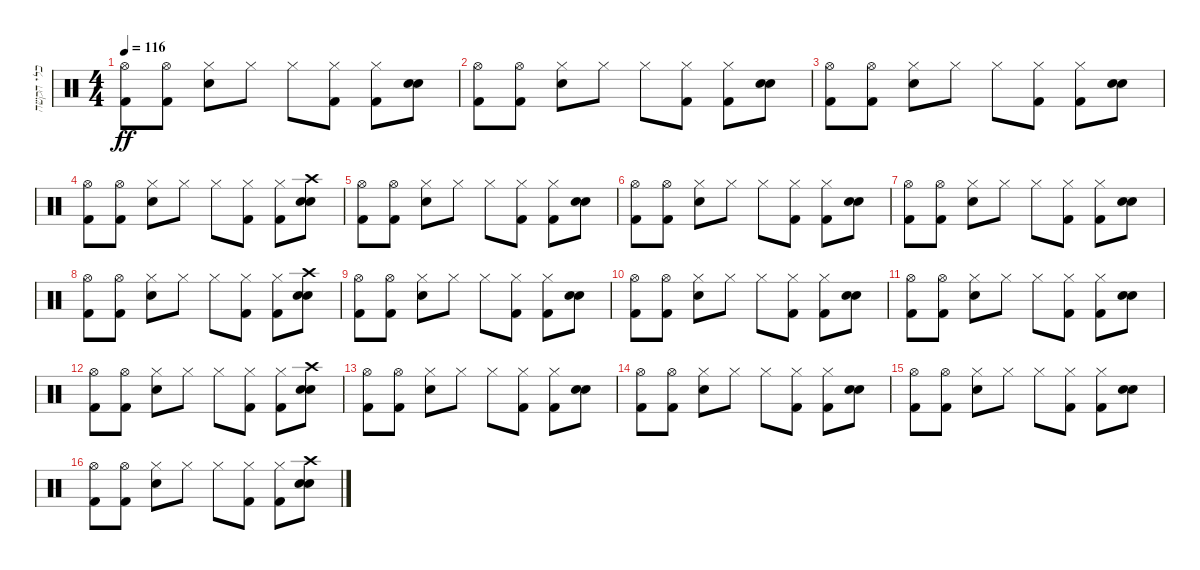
\track ("כלי הקשה" "כלי הקשה") {instrument percussion}
\staff {score}
\articulation defaults
\ts (4 4)
\tempo 116
\clef neutral
\ks c
("Hi-Hat (open)" "Kick (hit) 2").8{dy ff} ("Hi-Hat (open)" "Kick (hit) 2").8 ("Hi-Hat (closed)" "Snare (hit) 2").8 "Hi-Hat (closed)".8 "Hi-Hat (closed)".8 ("Hi-Hat (closed)" "Kick (hit) 2").8 ("Hi-Hat (closed)" "Kick (hit) 2").8 ("Electric Snare (hit)" "Snare (hit) 2").8 |
("Hi-Hat (open)" "Kick (hit) 2").8 ("Hi-Hat (open)" "Kick (hit) 2").8 ("Hi-Hat (closed)" "Snare (hit) 2").8 "Hi-Hat (closed)".8 "Hi-Hat (closed)".8 ("Hi-Hat (closed)" "Kick (hit) 2").8 ("Hi-Hat (closed)" "Kick (hit) 2").8 ("Electric Snare (hit)" "Snare (hit) 2").8 |
("Hi-Hat (open)" "Kick (hit) 2").8 ("Hi-Hat (open)" "Kick (hit) 2").8 ("Hi-Hat (closed)" "Snare (hit) 2").8 "Hi-Hat (closed)".8 "Hi-Hat (closed)".8 ("Hi-Hat (closed)" "Kick (hit) 2").8 ("Hi-Hat (closed)" "Kick (hit) 2").8 ("Electric Snare (hit)" "Snare (hit) 2").8 |
("Hi-Hat (open)" "Kick (hit) 2").8 ("Hi-Hat (open)" "Kick (hit) 2").8 ("Hi-Hat (closed)" "Snare (hit) 2").8 "Hi-Hat (closed)".8 "Hi-Hat (closed)".8 ("Hi-Hat (closed)" "Kick (hit) 2").8 ("Hi-Hat (closed)" "Kick (hit) 2").8 ("Crash high (hit)" "Electric Snare (hit)" "Snare (hit) 2").8 |
("Hi-Hat (open)" "Kick (hit) 2").8 ("Hi-Hat (open)" "Kick (hit) 2").8 ("Hi-Hat (closed)" "Snare (hit) 2").8 "Hi-Hat (closed)".8 "Hi-Hat (closed)".8 ("Hi-Hat (closed)" "Kick (hit) 2").8 ("Hi-Hat (closed)" "Kick (hit) 2").8 ("Electric Snare (hit)" "Snare (hit) 2").8 |
("Hi-Hat (open)" "Kick (hit) 2").8 ("Hi-Hat (open)" "Kick (hit) 2").8 ("Hi-Hat (closed)" "Snare (hit) 2").8 "Hi-Hat (closed)".8 "Hi-Hat (closed)".8 ("Hi-Hat (closed)" "Kick (hit) 2").8 ("Hi-Hat (closed)" "Kick (hit) 2").8 ("Electric Snare (hit)" "Snare (hit) 2").8 |
("Hi-Hat (open)" "Kick (hit) 2").8 ("Hi-Hat (open)" "Kick (hit) 2").8 ("Hi-Hat (closed)" "Snare (hit) 2").8 "Hi-Hat (closed)".8 "Hi-Hat (closed)".8 ("Hi-Hat (closed)" "Kick (hit) 2").8 ("Hi-Hat (closed)" "Kick (hit) 2").8 ("Electric Snare (hit)" "Snare (hit) 2").8 |
("Hi-Hat (open)" "Kick (hit) 2").8 ("Hi-Hat (open)" "Kick (hit) 2").8 ("Hi-Hat (closed)" "Snare (hit) 2").8 "Hi-Hat (closed)".8 "Hi-Hat (closed)".8 ("Hi-Hat (closed)" "Kick (hit) 2").8 ("Hi-Hat (closed)" "Kick (hit) 2").8 ("Crash high (hit)" "Electric Snare (hit)" "Snare (hit) 2").8 |
("Hi-Hat (open)" "Kick (hit) 2").8 ("Hi-Hat (open)" "Kick (hit) 2").8 ("Hi-Hat (closed)" "Snare (hit) 2").8 "Hi-Hat (closed)".8 "Hi-Hat (closed)".8 ("Hi-Hat (closed)" "Kick (hit) 2").8 ("Hi-Hat (closed)" "Kick (hit) 2").8 ("Electric Snare (hit)" "Snare (hit) 2").8 |
("Hi-Hat (open)" "Kick (hit) 2").8 ("Hi-Hat (open)" "Kick (hit) 2").8 ("Hi-Hat (closed)" "Snare (hit) 2").8 "Hi-Hat (closed)".8 "Hi-Hat (closed)".8 ("Hi-Hat (closed)" "Kick (hit) 2").8 ("Hi-Hat (closed)" "Kick (hit) 2").8 ("Electric Snare (hit)" "Snare (hit) 2").8 |
("Hi-Hat (open)" "Kick (hit) 2").8 ("Hi-Hat (open)" "Kick (hit) 2").8 ("Hi-Hat (closed)" "Snare (hit) 2").8 "Hi-Hat (closed)".8 "Hi-Hat (closed)".8 ("Hi-Hat (closed)" "Kick (hit) 2").8 ("Hi-Hat (closed)" "Kick (hit) 2").8 ("Electric Snare (hit)" "Snare (hit) 2").8 |
("Hi-Hat (open)" "Kick (hit) 2").8 ("Hi-Hat (open)" "Kick (hit) 2").8 ("Hi-Hat (closed)" "Snare (hit) 2").8 "Hi-Hat (closed)".8 "Hi-Hat (closed)".8 ("Hi-Hat (closed)" "Kick (hit) 2").8 ("Hi-Hat (closed)" "Kick (hit) 2").8 ("Crash high (hit)" "Electric Snare (hit)" "Snare (hit) 2").8 |
("Hi-Hat (open)" "Kick (hit) 2").8 ("Hi-Hat (open)" "Kick (hit) 2").8 ("Hi-Hat (closed)" "Snare (hit) 2").8 "Hi-Hat (closed)".8 "Hi-Hat (closed)".8 ("Hi-Hat (closed)" "Kick (hit) 2").8 ("Hi-Hat (closed)" "Kick (hit) 2").8 ("Electric Snare (hit)" "Snare (hit) 2").8 |
("Hi-Hat (open)" "Kick (hit) 2").8 ("Hi-Hat (open)" "Kick (hit) 2").8 ("Hi-Hat (closed)" "Snare (hit) 2").8 "Hi-Hat (closed)".8 "Hi-Hat (closed)".8 ("Hi-Hat (closed)" "Kick (hit) 2").8 ("Hi-Hat (closed)" "Kick (hit) 2").8 ("Electric Snare (hit)" "Snare (hit) 2").8 |
("Hi-Hat (open)" "Kick (hit) 2").8 ("Hi-Hat (open)" "Kick (hit) 2").8 ("Hi-Hat (closed)" "Snare (hit) 2").8 "Hi-Hat (closed)".8 "Hi-Hat (closed)".8 ("Hi-Hat (closed)" "Kick (hit) 2").8 ("Hi-Hat (closed)" "Kick (hit) 2").8 ("Electric Snare (hit)" "Snare (hit) 2").8 |
("Hi-Hat (open)" "Kick (hit) 2").8 ("Hi-Hat (open)" "Kick (hit) 2").8 ("Hi-Hat (closed)" "Snare (hit) 2").8 "Hi-Hat (closed)".8 "Hi-Hat (closed)".8 ("Hi-Hat (closed)" "Kick (hit) 2").8 ("Hi-Hat (closed)" "Kick (hit) 2").8 ("Crash high (hit)" "Electric Snare (hit)" "Snare (hit) 2").8
